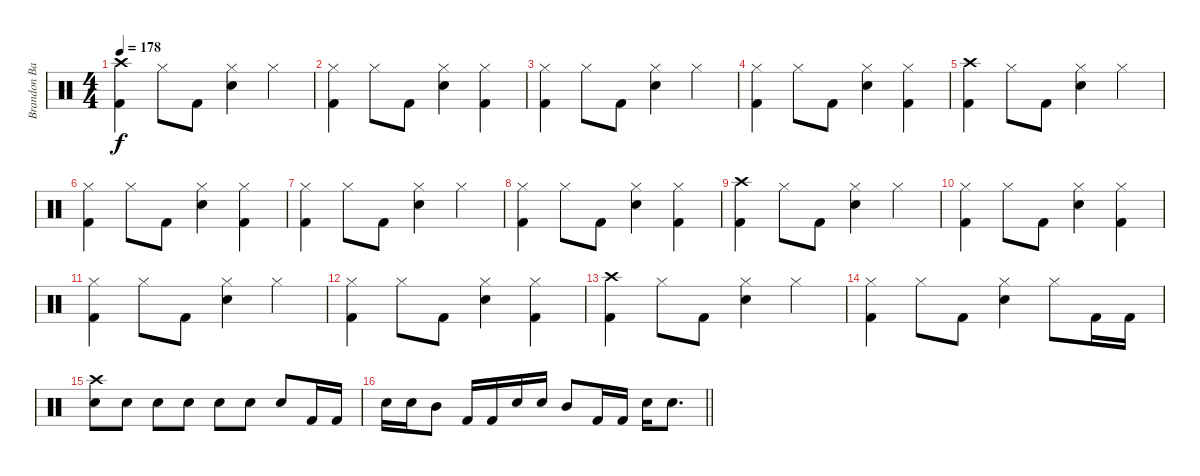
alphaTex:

\track ("Brandon Barnes - Drums" "Brandon Ba") {instrument percussion}
\staff {score}
\articulation defaults
\ts (4 4)
\tempo 178
\clef neutral
\ks c
("Crash high (hit)" "Kick (hit) 2").4{dy f} "Hi-Hat (closed)".8 "Kick (hit) 2".8 ("Snare (hit) 2" "Hi-Hat (closed)").4 "Hi-Hat (closed)".4 |
("Hi-Hat (closed)" "Kick (hit) 2").4 "Hi-Hat (closed)".8 "Kick (hit) 2".8 ("Snare (hit) 2" "Hi-Hat (closed)").4 ("Hi-Hat (closed)" "Kick (hit) 2").4 |
("Hi-Hat (closed)" "Kick (hit) 2").4 "Hi-Hat (closed)".8 "Kick (hit) 2".8 ("Snare (hit) 2" "Hi-Hat (closed)").4 "Hi-Hat (closed)".4 |
("Hi-Hat (closed)" "Kick (hit) 2").4 "Hi-Hat (closed)".8 "Kick (hit) 2".8 ("Snare (hit) 2" "Hi-Hat (closed)").4 ("Hi-Hat (closed)" "Kick (hit) 2").4 |
("Crash high (hit)" "Kick (hit) 2").4 "Hi-Hat (closed)".8 "Kick (hit) 2".8 ("Snare (hit) 2" "Hi-Hat (closed)").4 "Hi-Hat (closed)".4 |
("Hi-Hat (closed)" "Kick (hit) 2").4 "Hi-Hat (closed)".8 "Kick (hit) 2".8 ("Snare (hit) 2" "Hi-Hat (closed)").4 ("Hi-Hat (closed)" "Kick (hit) 2").4 |
("Hi-Hat (closed)" "Kick (hit) 2").4 "Hi-Hat (closed)".8 "Kick (hit) 2".8 ("Snare (hit) 2" "Hi-Hat (closed)").4 "Hi-Hat (closed)".4 |
("Hi-Hat (closed)" "Kick (hit) 2").4 "Hi-Hat (closed)".8 "Kick (hit) 2".8 ("Snare (hit) 2" "Hi-Hat (closed)").4 ("Hi-Hat (closed)" "Kick (hit) 2").4 |
("Crash high (hit)" "Kick (hit) 2").4 "Hi-Hat (closed)".8 "Kick (hit) 2".8 ("Snare (hit) 2" "Hi-Hat (closed)").4 "Hi-Hat (closed)".4 |
("Hi-Hat (closed)" "Kick (hit) 2").4 "Hi-Hat (closed)".8 "Kick (hit) 2".8 ("Snare (hit) 2" "Hi-Hat (closed)").4 ("Hi-Hat (closed)" "Kick (hit) 2").4 |
("Hi-Hat (closed)" "Kick (hit) 2").4 "Hi-Hat (closed)".8 "Kick (hit) 2".8 ("Snare (hit) 2" "Hi-Hat (closed)").4 "Hi-Hat (closed)".4 |
("Hi-Hat (closed)" "Kick (hit) 2").4 "Hi-Hat (closed)".8 "Kick (hit) 2".8 ("Snare (hit) 2" "Hi-Hat (closed)").4 ("Hi-Hat (closed)" "Kick (hit) 2").4 |
("Crash high (hit)" "Kick (hit) 2").4 "Hi-Hat (closed)".8 "Kick (hit) 2".8 ("Snare (hit) 2" "Hi-Hat (closed)").4 "Hi-Hat (closed)".4 |
("Hi-Hat (closed)" "Kick (hit) 2").4 "Hi-Hat (closed)".8 "Kick (hit) 2".8 ("Snare (hit) 2" "Hi-Hat (closed)").4 "Hi-Hat (closed)".8 "Kick (hit) 2".16 "Kick (hit) 2".16 |
("Crash high (hit)" "Snare (hit) 2").8 "Snare (hit) 2".8 "Snare (hit) 2".8 "Snare (hit) 2".8 "Snare (hit) 2".8 "Snare (hit) 2".8 "Snare (hit) 2".8 "Kick (hit) 2".16 "Kick (hit) 2".16 |
\barLineRight lightlight "Snare (hit) 2".16 "Snare (hit) 2".16 "Mid Tom (hit)".8 "Kick (hit) 2".16 "Kick (hit) 2".16 "Snare (hit) 2".16 "Snare (hit) 2".16 "Mid Tom (hit)".8 "Kick (hit) 2".16 "Kick (hit) 2".16 "Snare (hit) 2".16 "Snare (hit) 2".8{d}
